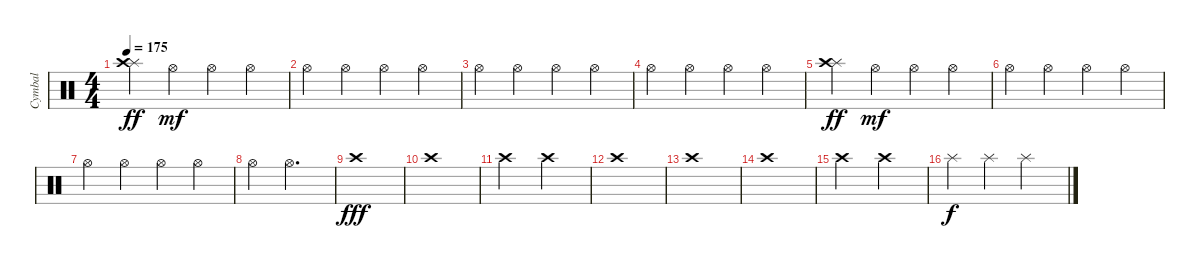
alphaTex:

\track ("Cymbal" "Cymbal") {instrument percussion}
\staff {score}
\articulation defaults
\ts (4 4)
\tempo 175
\clef neutral
\ks c
("Splash (hit)" "Crash high (hit)").4{dy ff} "Hi-Hat (open)".4{dy mf} "Hi-Hat (open)".4 "Hi-Hat (open)".4 |
"Hi-Hat (open)".4 "Hi-Hat (open)".4 "Hi-Hat (open)".4 "Hi-Hat (open)".4 |
"Hi-Hat (open)".4 "Hi-Hat (open)".4 "Hi-Hat (open)".4 "Hi-Hat (open)".4 |
"Hi-Hat (open)".4 "Hi-Hat (open)".4 "Hi-Hat (open)".4 "Hi-Hat (open)".4 |
("Splash (hit)" "Crash high (hit)").4{dy ff} "Hi-Hat (open)".4{dy mf} "Hi-Hat (open)".4 "Hi-Hat (open)".4 |
"Hi-Hat (open)".4 "Hi-Hat (open)".4 "Hi-Hat (open)".4 "Hi-Hat (open)".4 |
"Hi-Hat (open)".4 "Hi-Hat (open)".4 "Hi-Hat (open)".4 "Hi-Hat (open)".4 |
"Hi-Hat (open)".4 "Hi-Hat (open)".2{d} |
"Crash high (hit)".1{dy fff} |
"Crash high (hit)".1 |
"Crash high (hit)".2 "Crash high (hit)".2 |
"Crash high (hit)".1 |
"Crash high (hit)".1 |
"Crash high (hit)".1 |
"Crash high (hit)".2 "Crash high (hit)".2 |
"Splash (hit)".4{dy f} "Splash (hit)".4 "Splash (hit)".2
